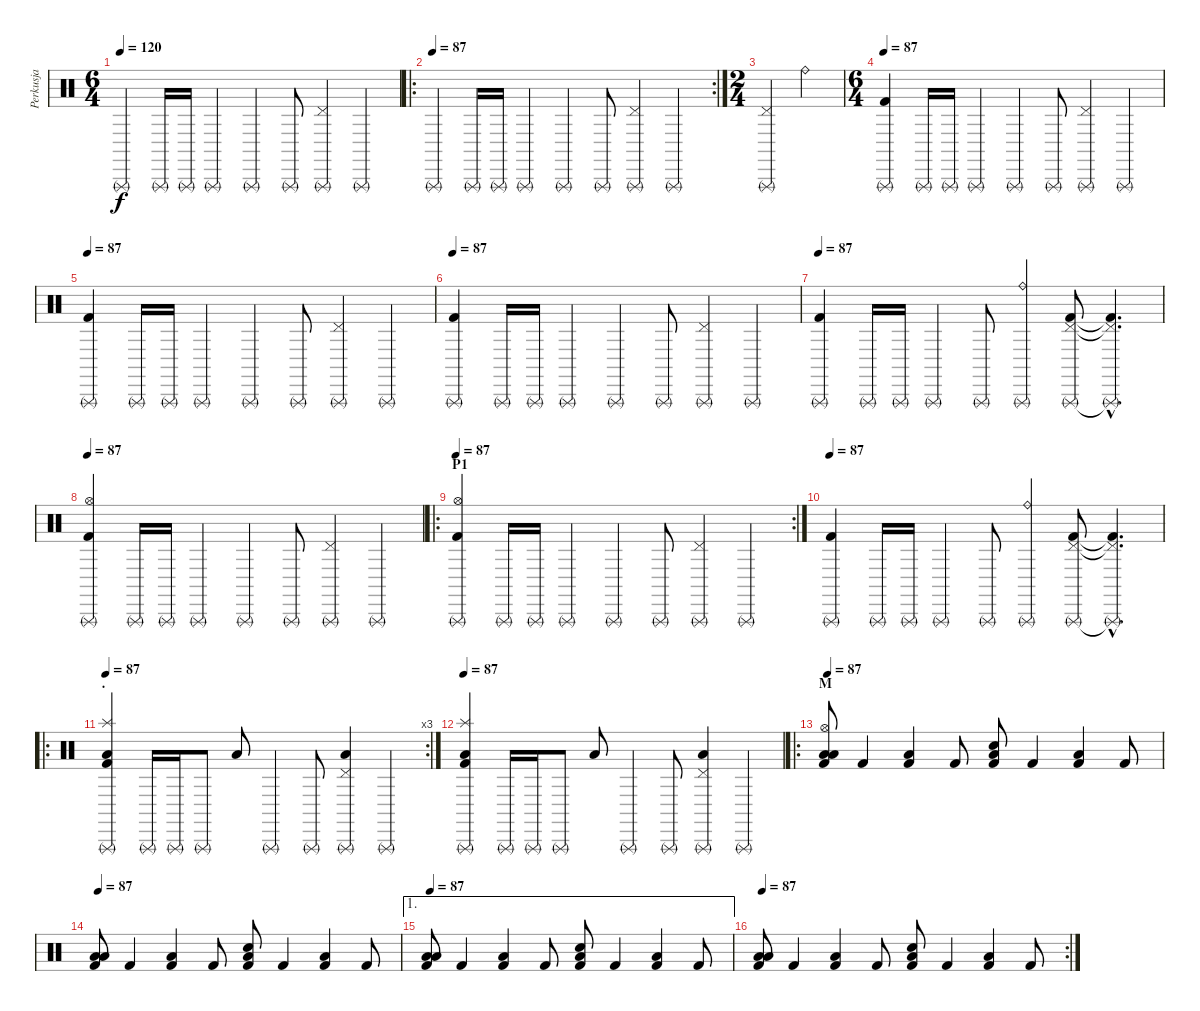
\track ("Perkusja" "Perkusja") {instrument percussion}
\staff {score}
\articulation defaults
\ts (6 4)
\tempo 120
\tempo 87
\tempo 120
\clef neutral
\ks c "Triangle (rnute)".4{dy f volume 10} "Triangle (rnute)".16 "Triangle (rnute)".16 "Triangle (rnute)".4 "Triangle (rnute)".4 "Triangle (rnute)".8
("Triangle (rnute)" "Pedal Hi-Hat (hit)").4 "Triangle (rnute)".4 |
\ro
\rc 2
\tempo (87)
"Triangle (rnute)".4 "Triangle (rnute)".16 "Triangle (rnute)".16 "Triangle (rnute)".4 "Triangle (rnute)".4 "Triangle (rnute)".8 ("Triangle (rnute)" "Pedal Hi-Hat (hit)").4 "Triangle (rnute)".4 |
\ts (2 4)
("Triangle (rnute)" "Pedal Hi-Hat (hit)").4 "Ride (bell)".4 |
\ts (6 4)
\tempo 87
("Triangle (rnute)" "Kick (hit) 2").4 "Triangle (rnute)".16 "Triangle (rnute)".16 "Triangle (rnute)".4 "Triangle (rnute)".4 "Triangle (rnute)".8 ("Triangle (rnute)" "Pedal Hi-Hat (hit)").4 "Triangle (rnute)".4 |
\tempo 87
("Triangle (rnute)" "Kick (hit) 2").4 "Triangle (rnute)".16 "Triangle (rnute)".16 "Triangle (rnute)".4 "Triangle (rnute)".4 "Triangle (rnute)".8 ("Triangle (rnute)" "Pedal Hi-Hat (hit)").4 "Triangle (rnute)".4 |
\tempo 87
("Triangle (rnute)" "Kick (hit) 2").4 "Triangle (rnute)".16 "Triangle (rnute)".16 "Triangle (rnute)".4 "Triangle (rnute)".4 "Triangle (rnute)".8 ("Triangle (rnute)" "Pedal Hi-Hat (hit)").4 "Triangle (rnute)".4 |
\tempo 87
("Triangle (rnute)" "Kick (hit) 2").4 "Triangle (rnute)".16 "Triangle (rnute)".16 "Triangle (rnute)".4 "Triangle (rnute)".8 ("Triangle (rnute)" "Ride (bell)").4 ("Triangle (rnute)" "Kick (hit) 2" "Pedal Hi-Hat (hit)").8 ("Triangle (rnute)"{hac t} "Kick (hit) 2"{hac t} "Pedal Hi-Hat (hit)"{hac t}).4{d} |
\tempo 87
("Triangle (rnute)" "Kick (hit) 2" "Hi-Hat (open)").4 "Triangle (rnute)".16 "Triangle (rnute)".16 "Triangle (rnute)".4 "Triangle (rnute)".4 "Triangle (rnute)".8 ("Triangle (rnute)" "Pedal Hi-Hat (hit)").4 "Triangle (rnute)".4 |
\ro
\rc 2
\section ("" "P1")
\tempo 87
("Triangle (rnute)" "Kick (hit) 2" "Hi-Hat (open)").4 "Triangle (rnute)".16 "Triangle (rnute)".16 "Triangle (rnute)".4 "Triangle (rnute)".4 "Triangle (rnute)".8 ("Triangle (rnute)" "Pedal Hi-Hat (hit)").4 "Triangle (rnute)".4 |
\tempo 87
("Triangle (rnute)" "Kick (hit) 2").4 "Triangle (rnute)".16 "Triangle (rnute)".16 "Triangle (rnute)".4 "Triangle (rnute)".8 ("Triangle (rnute)" "Ride (bell)").4 ("Triangle (rnute)" "Kick (hit) 2" "Pedal Hi-Hat (hit)").8 ("Triangle (rnute)"{hac t} "Kick (hit) 2"{hac t} "Pedal Hi-Hat (hit)"{hac t}).4{d} |
\ro
\rc 3
\section ("" ".")
\tempo 87
("Triangle (rnute)" "Kick (hit) 2" "Splash (hit)" "Low Tom (hit)").4 "Triangle (rnute)".16 "Triangle (rnute)".16 "Triangle (rnute)".8 "Low Tom (hit)".8 "Triangle (rnute)".4 "Triangle (rnute)".8 ("Triangle (rnute)" "Pedal Hi-Hat (hit)" "Low Tom (hit)").4 "Triangle (rnute)".4 |
\tempo 87
("Triangle (rnute)" "Kick (hit) 2" "Splash (hit)" "Low Tom (hit)").4 "Triangle (rnute)".16 "Triangle (rnute)".16 "Triangle (rnute)".8 "Low Tom (hit)".8 "Triangle (rnute)".4 "Triangle (rnute)".8 ("Triangle (rnute)" "Pedal Hi-Hat (hit)" "Low Tom (hit)").4 "Triangle (rnute)".4 |
\ro
\section ("" "M")
\tempo 87
("Kick (hit) 2" "Hi-Hat (open)" "Low Floor Tom (hit)" "Low Tom (hit)").8 "Kick (hit) 2".4 ("Kick (hit) 2" "Low Tom (hit)").4 "Kick (hit) 2".8 ("Kick (hit) 2" "Snare (hit) 2" "Low Tom (hit)").8 "Kick (hit) 2".4 ("Kick (hit) 2" "Low Tom (hit)").4 "Kick (hit) 2".8 |
\tempo 87
("Kick (hit) 2" "Low Floor Tom (hit)" "Low Tom (hit)").8 "Kick (hit) 2".4 ("Kick (hit) 2" "Low Tom (hit)").4 "Kick (hit) 2".8 ("Kick (hit) 2" "Snare (hit) 2" "Low Tom (hit)").8 "Kick (hit) 2".4 ("Kick (hit) 2" "Low Tom (hit)").4 "Kick (hit) 2".8 |
\ae 1
\tempo 87
("Kick (hit) 2" "Low Floor Tom (hit)" "Low Tom (hit)").8 "Kick (hit) 2".4 ("Kick (hit) 2" "Low Tom (hit)").4 "Kick (hit) 2".8 ("Kick (hit) 2" "Snare (hit) 2" "Low Tom (hit)").8 "Kick (hit) 2".4 ("Kick (hit) 2" "Low Tom (hit)").4 "Kick (hit) 2".8 |
\rc 2
\tempo 87
("Kick (hit) 2" "Low Floor Tom (hit)" "Low Tom (hit)").8 "Kick (hit) 2".4 ("Kick (hit) 2" "Low Tom (hit)").4 "Kick (hit) 2".8 ("Kick (hit) 2" "Snare (hit) 2" "Low Tom (hit)").8 "Kick (hit) 2".4 ("Kick (hit) 2" "Low Tom (hit)").4 "Kick (hit) 2".8
